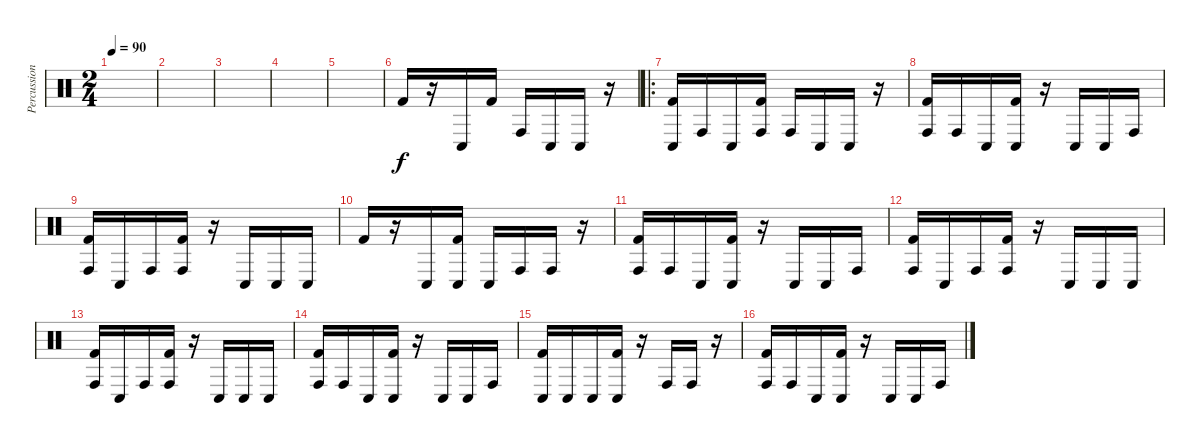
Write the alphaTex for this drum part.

\track ("Percussions" "Percussion") {instrument percussion}
\staff {score}
\articulation defaults
\ts (2 4)
\tempo 90
\clef neutral
\ks c
|
|
|
|
|
"Kick (hit) 2".16 r.16 "Conga low (hit)".16 "Kick (hit) 2".16 "Conga high (hit)".16 "Conga low (hit)".16 "Conga low (hit)".16 r.16 |
\ro
("Kick (hit) 2" "Conga low (hit)").16 "Conga high (hit)".16 "Conga low (hit)".16 ("Kick (hit) 2" "Conga high (hit)").16 "Conga high (hit)".16 "Conga low (hit)".16 "Conga low (hit)".16 r.16 |
("Kick (hit) 2" "Conga high (hit)").16 "Conga high (hit)".16 "Conga low (hit)".16 ("Kick (hit) 2" "Conga low (hit)").16 r.16 "Conga low (hit)".16 "Conga low (hit)".16 "Conga high (hit)".16 |
("Kick (hit) 2" "Conga high (hit)").16 "Conga low (hit)".16 "Conga high (hit)".16 ("Conga high (hit)" "Kick (hit) 2").16 r.16 "Conga low (hit)".16 "Conga low (hit)".16 "Conga low (hit)".16 |
"Kick (hit) 2".16 r.16 "Conga low (hit)".16 ("Kick (hit) 2" "Conga low (hit)").16 "Conga low (hit)".16 "Conga high (hit)".16 "Conga high (hit)".16 r.16 |
("Kick (hit) 2" "Conga high (hit)").16 "Conga high (hit)".16 "Conga low (hit)".16 ("Kick (hit) 2" "Conga low (hit)").16 r.16 "Conga low (hit)".16 "Conga low (hit)".16 "Conga high (hit)".16 |
("Kick (hit) 2" "Conga high (hit)").16 "Conga low (hit)".16 "Conga high (hit)".16 ("Conga high (hit)" "Kick (hit) 2").16 r.16 "Conga low (hit)".16 "Conga low (hit)".16 "Conga low (hit)".16 |
("Kick (hit) 2" "Conga high (hit)").16 "Conga low (hit)".16 "Conga high (hit)".16 ("Conga high (hit)" "Kick (hit) 2").16 r.16 "Conga low (hit)".16 "Conga low (hit)".16 "Conga low (hit)".16 |
("Kick (hit) 2" "Conga high (hit)").16 "Conga high (hit)".16 "Conga low (hit)".16 ("Kick (hit) 2" "Conga low (hit)").16 r.16 "Conga low (hit)".16 "Conga low (hit)".16 "Conga high (hit)".16 |
("Kick (hit) 2" "Conga low (hit)").16 "Conga low (hit)".16 "Conga low (hit)".16 ("Kick (hit) 2" "Conga low (hit)").16 r.16 "Conga high (hit)".16 "Conga high (hit)".16 r.16 |
("Kick (hit) 2" "Conga high (hit)").16 "Conga high (hit)".16 "Conga low (hit)".16 ("Kick (hit) 2" "Conga low (hit)").16 r.16 "Conga low (hit)".16 "Conga low (hit)".16 "Conga high (hit)".16
